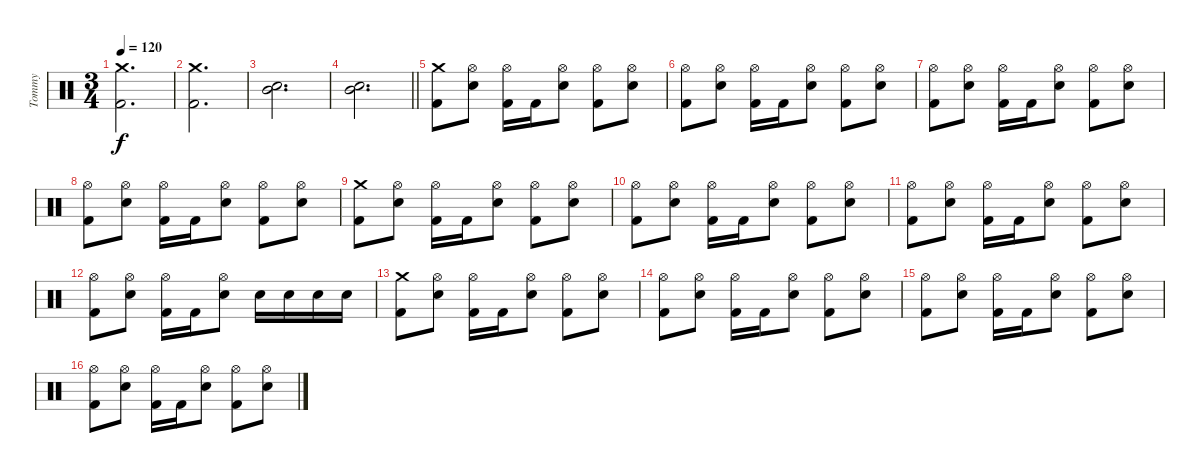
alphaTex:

\track ("Tommy" "Tommy") {instrument percussion}
\staff {score}
\articulation defaults
\ts (3 4)
\tempo 120
\clef neutral
\ks c
("Crash medium (hit)" "Kick (hit) 2").2{d dy f} |
("Crash medium (hit)" "Kick (hit) 2").2{d} |
("Electric Snare (hit)" "Mid Tom (hit)").2{d} |
\barLineRight lightlight
("Mid Tom (hit)" "Electric Snare (hit)").2{d} |
\section ("" "")
("Crash medium (hit)" "Kick (hit) 2").8 ("Hi-Hat (open)" "Electric Snare (hit)").8 ("Hi-Hat (open)" "Kick (hit) 2").16 "Kick (hit) 2".16 ("Hi-Hat (open)" "Electric Snare (hit)").8 ("Hi-Hat (open)" "Kick (hit) 2").8 ("Hi-Hat (open)" "Electric Snare (hit)").8 |
("Hi-Hat (open)" "Kick (hit) 2").8 ("Hi-Hat (open)" "Electric Snare (hit)").8 ("Hi-Hat (open)" "Kick (hit) 2").16 "Kick (hit) 2".16 ("Hi-Hat (open)" "Electric Snare (hit)").8 ("Hi-Hat (open)" "Kick (hit) 2").8 ("Hi-Hat (open)" "Electric Snare (hit)").8 |
("Hi-Hat (open)" "Kick (hit) 2").8 ("Hi-Hat (open)" "Electric Snare (hit)").8 ("Hi-Hat (open)" "Kick (hit) 2").16 "Kick (hit) 2".16 ("Hi-Hat (open)" "Electric Snare (hit)").8 ("Hi-Hat (open)" "Kick (hit) 2").8 ("Hi-Hat (open)" "Electric Snare (hit)").8 |
("Hi-Hat (open)" "Kick (hit) 2").8 ("Hi-Hat (open)" "Electric Snare (hit)").8 ("Hi-Hat (open)" "Kick (hit) 2").16 "Kick (hit) 2".16 ("Hi-Hat (open)" "Electric Snare (hit)").8 ("Hi-Hat (open)" "Kick (hit) 2").8 ("Hi-Hat (open)" "Electric Snare (hit)").8 |
("Crash medium (hit)" "Kick (hit) 2").8 ("Hi-Hat (open)" "Electric Snare (hit)").8 ("Hi-Hat (open)" "Kick (hit) 2").16 "Kick (hit) 2".16 ("Hi-Hat (open)" "Electric Snare (hit)").8 ("Hi-Hat (open)" "Kick (hit) 2").8 ("Hi-Hat (open)" "Electric Snare (hit)").8 |
("Hi-Hat (open)" "Kick (hit) 2").8 ("Hi-Hat (open)" "Electric Snare (hit)").8 ("Hi-Hat (open)" "Kick (hit) 2").16 "Kick (hit) 2".16 ("Hi-Hat (open)" "Electric Snare (hit)").8 ("Hi-Hat (open)" "Kick (hit) 2").8 ("Hi-Hat (open)" "Electric Snare (hit)").8 |
("Hi-Hat (open)" "Kick (hit) 2").8 ("Hi-Hat (open)" "Electric Snare (hit)").8 ("Hi-Hat (open)" "Kick (hit) 2").16 "Kick (hit) 2".16 ("Hi-Hat (open)" "Electric Snare (hit)").8 ("Hi-Hat (open)" "Kick (hit) 2").8 ("Hi-Hat (open)" "Electric Snare (hit)").8 |
("Hi-Hat (open)" "Kick (hit) 2").8 ("Hi-Hat (open)" "Electric Snare (hit)").8 ("Hi-Hat (open)" "Kick (hit) 2").16 "Kick (hit) 2".16 ("Hi-Hat (open)" "Electric Snare (hit)").8 "Electric Snare (hit)".16 "Electric Snare (hit)".16 "Electric Snare (hit)".16 "Electric Snare (hit)".16 |
("Crash medium (hit)" "Kick (hit) 2").8 ("Hi-Hat (open)" "Electric Snare (hit)").8 ("Hi-Hat (open)" "Kick (hit) 2").16 "Kick (hit) 2".16 ("Hi-Hat (open)" "Electric Snare (hit)").8 ("Hi-Hat (open)" "Kick (hit) 2").8 ("Hi-Hat (open)" "Electric Snare (hit)").8 |
("Hi-Hat (open)" "Kick (hit) 2").8 ("Hi-Hat (open)" "Electric Snare (hit)").8 ("Hi-Hat (open)" "Kick (hit) 2").16 "Kick (hit) 2".16 ("Hi-Hat (open)" "Electric Snare (hit)").8 ("Hi-Hat (open)" "Kick (hit) 2").8 ("Hi-Hat (open)" "Electric Snare (hit)").8 |
("Hi-Hat (open)" "Kick (hit) 2").8 ("Hi-Hat (open)" "Electric Snare (hit)").8 ("Hi-Hat (open)" "Kick (hit) 2").16 "Kick (hit) 2".16 ("Hi-Hat (open)" "Electric Snare (hit)").8 ("Hi-Hat (open)" "Kick (hit) 2").8 ("Hi-Hat (open)" "Electric Snare (hit)").8 |
("Hi-Hat (open)" "Kick (hit) 2").8 ("Hi-Hat (open)" "Electric Snare (hit)").8 ("Hi-Hat (open)" "Kick (hit) 2").16 "Kick (hit) 2".16 ("Hi-Hat (open)" "Electric Snare (hit)").8 ("Hi-Hat (open)" "Kick (hit) 2").8 ("Hi-Hat (open)" "Electric Snare (hit)").8
